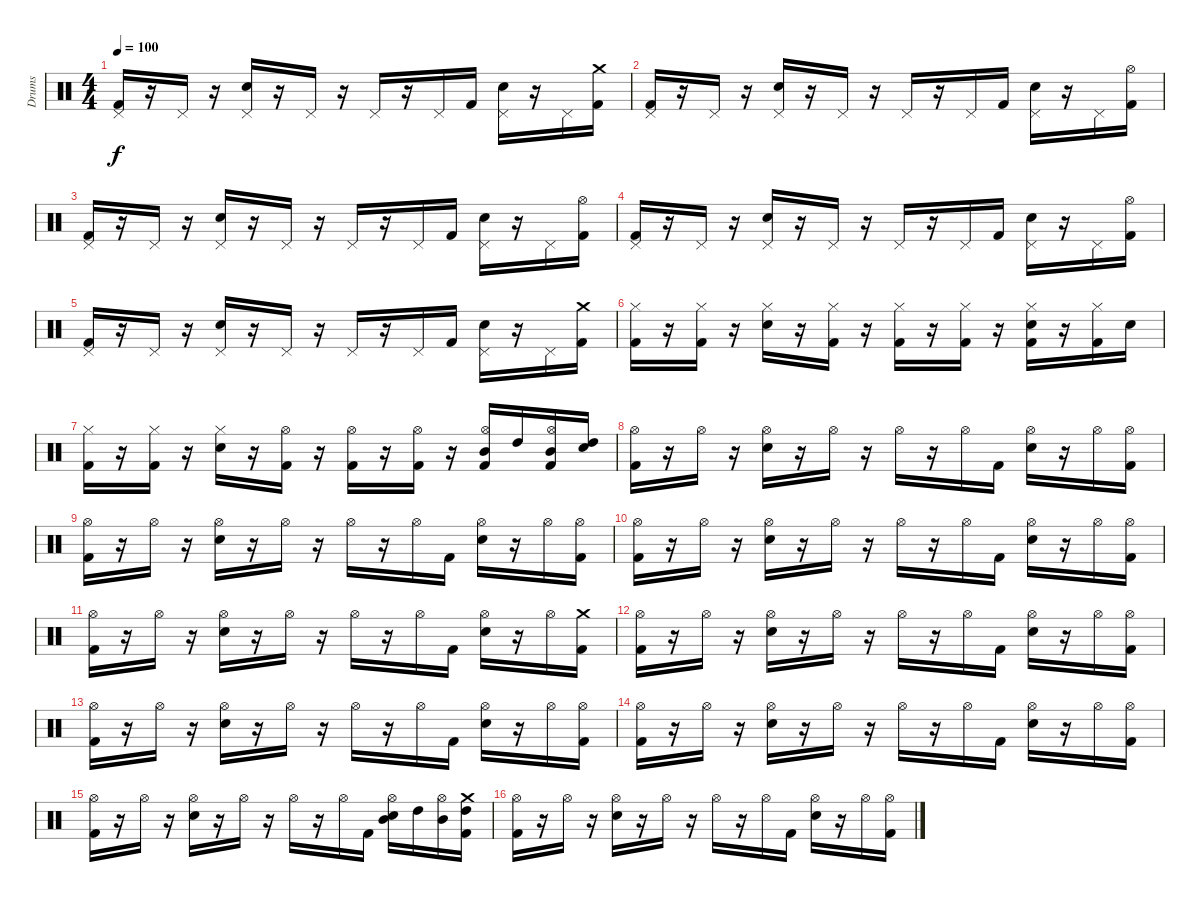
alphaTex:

\track ("Drums" "Drums") {instrument percussion}
\staff {score}
\articulation defaults
\ts (4 4)
\tempo 100
\clef neutral
\ks c
("Pedal Hi-Hat (hit)" "Kick (hit) 2").16{dy f} r.16 "Pedal Hi-Hat (hit)".16 r.16 ("Pedal Hi-Hat (hit)" "Snare (hit) 2").16 r.16 "Pedal Hi-Hat (hit)".16 r.16 "Pedal Hi-Hat (hit)".16 r.16 "Pedal Hi-Hat (hit)".16 "Kick (hit) 2".16 ("Pedal Hi-Hat (hit)" "Snare (hit) 2").16 r.16 "Pedal Hi-Hat (hit)".16 ("Crash medium (hit)" "Kick (hit) 2").16 |
("Pedal Hi-Hat (hit)" "Kick (hit) 2").16 r.16 "Pedal Hi-Hat (hit)".16 r.16 ("Pedal Hi-Hat (hit)" "Snare (hit) 2").16 r.16 "Pedal Hi-Hat (hit)".16 r.16 "Pedal Hi-Hat (hit)".16 r.16 "Pedal Hi-Hat (hit)".16 "Kick (hit) 2".16 ("Pedal Hi-Hat (hit)" "Snare (hit) 2").16 r.16 "Pedal Hi-Hat (hit)".16 ("Hi-Hat (open)" "Kick (hit) 2").16 |
("Pedal Hi-Hat (hit)" "Kick (hit) 2").16 r.16 "Pedal Hi-Hat (hit)".16 r.16 ("Pedal Hi-Hat (hit)" "Snare (hit) 2").16 r.16 "Pedal Hi-Hat (hit)".16 r.16 "Pedal Hi-Hat (hit)".16 r.16 "Pedal Hi-Hat (hit)".16 "Kick (hit) 2".16 ("Pedal Hi-Hat (hit)" "Snare (hit) 2").16 r.16 "Pedal Hi-Hat (hit)".16 ("Hi-Hat (open)" "Kick (hit) 2").16 |
("Pedal Hi-Hat (hit)" "Kick (hit) 2").16 r.16 "Pedal Hi-Hat (hit)".16 r.16 ("Pedal Hi-Hat (hit)" "Snare (hit) 2").16 r.16 "Pedal Hi-Hat (hit)".16 r.16 "Pedal Hi-Hat (hit)".16 r.16 "Pedal Hi-Hat (hit)".16 "Kick (hit) 2".16 ("Pedal Hi-Hat (hit)" "Snare (hit) 2").16 r.16 "Pedal Hi-Hat (hit)".16 ("Hi-Hat (open)" "Kick (hit) 2").16 |
("Pedal Hi-Hat (hit)" "Kick (hit) 2").16 r.16 "Pedal Hi-Hat (hit)".16 r.16 ("Pedal Hi-Hat (hit)" "Snare (hit) 2").16 r.16 "Pedal Hi-Hat (hit)".16 r.16 "Pedal Hi-Hat (hit)".16 r.16 "Pedal Hi-Hat (hit)".16 "Kick (hit) 2".16 ("Pedal Hi-Hat (hit)" "Snare (hit) 2").16 r.16 "Pedal Hi-Hat (hit)".16 ("Crash medium (hit)" "Kick (hit) 2").16 |
("Hi-Hat (closed)" "Kick (hit) 2").16 r.16 ("Hi-Hat (closed)" "Kick (hit) 2").16 r.16 ("Hi-Hat (closed)" "Snare (hit) 2").16 r.16 ("Hi-Hat (closed)" "Kick (hit) 2").16 r.16 ("Hi-Hat (closed)" "Kick (hit) 2").16 r.16 ("Hi-Hat (closed)" "Kick (hit) 2").16 r.16 ("Hi-Hat (closed)" "Snare (hit) 2" "Kick (hit) 2").16 r.16 ("Hi-Hat (closed)" "Kick (hit) 2").16 "Snare (hit) 2".16 |
("Hi-Hat (closed)" "Kick (hit) 2").16 r.16 ("Hi-Hat (closed)" "Kick (hit) 2").16 r.16 ("Hi-Hat (closed)" "Snare (hit) 2").16 r.16 ("Hi-Hat (open)" "Kick (hit) 2").16 r.16 ("Hi-Hat (open)" "Kick (hit) 2").16 r.16 ("Hi-Hat (open)" "Kick (hit) 2").16 r.16 ("Hi-Hat (open)" "Mid Tom (hit)" "Kick (hit) 2").16 "High Tom (hit)".16 ("Hi-Hat (open)" "Mid Tom (hit)" "Kick (hit) 2").16 ("High Tom (hit)" "Snare (hit) 2").16 |
("Hi-Hat (open)" "Kick (hit) 2").16 r.16 "Hi-Hat (open)".16 r.16 ("Hi-Hat (open)" "Snare (hit) 2").16 r.16 "Hi-Hat (open)".16 r.16 "Hi-Hat (open)".16 r.16 "Hi-Hat (open)".16 "Kick (hit) 2".16 ("Hi-Hat (open)" "Snare (hit) 2").16 r.16 "Hi-Hat (open)".16 ("Hi-Hat (open)" "Kick (hit) 2").16 |
("Hi-Hat (open)" "Kick (hit) 2").16 r.16 "Hi-Hat (open)".16 r.16 ("Hi-Hat (open)" "Snare (hit) 2").16 r.16 "Hi-Hat (open)".16 r.16 "Hi-Hat (open)".16 r.16 "Hi-Hat (open)".16 "Kick (hit) 2".16 ("Hi-Hat (open)" "Snare (hit) 2").16 r.16 "Hi-Hat (open)".16 ("Hi-Hat (open)" "Kick (hit) 2").16 |
("Hi-Hat (open)" "Kick (hit) 2").16 r.16 "Hi-Hat (open)".16 r.16 ("Hi-Hat (open)" "Snare (hit) 2").16 r.16 "Hi-Hat (open)".16 r.16 "Hi-Hat (open)".16 r.16 "Hi-Hat (open)".16 "Kick (hit) 2".16 ("Hi-Hat (open)" "Snare (hit) 2").16 r.16 "Hi-Hat (open)".16 ("Hi-Hat (open)" "Kick (hit) 2").16 |
("Hi-Hat (open)" "Kick (hit) 2").16 r.16 "Hi-Hat (open)".16 r.16 ("Hi-Hat (open)" "Snare (hit) 2").16 r.16 "Hi-Hat (open)".16 r.16 "Hi-Hat (open)".16 r.16 "Hi-Hat (open)".16 "Kick (hit) 2".16 ("Hi-Hat (open)" "Snare (hit) 2").16 r.16 "Hi-Hat (open)".16 ("Crash medium (hit)" "Kick (hit) 2").16 |
("Hi-Hat (open)" "Kick (hit) 2").16 r.16 "Hi-Hat (open)".16 r.16 ("Hi-Hat (open)" "Snare (hit) 2").16 r.16 "Hi-Hat (open)".16 r.16 "Hi-Hat (open)".16 r.16 "Hi-Hat (open)".16 "Kick (hit) 2".16 ("Hi-Hat (open)" "Snare (hit) 2").16 r.16 "Hi-Hat (open)".16 ("Hi-Hat (open)" "Kick (hit) 2").16 |
("Hi-Hat (open)" "Kick (hit) 2").16 r.16 "Hi-Hat (open)".16 r.16 ("Hi-Hat (open)" "Snare (hit) 2").16 r.16 "Hi-Hat (open)".16 r.16 "Hi-Hat (open)".16 r.16 "Hi-Hat (open)".16 "Kick (hit) 2".16 ("Hi-Hat (open)" "Snare (hit) 2").16 r.16 "Hi-Hat (open)".16 ("Hi-Hat (open)" "Kick (hit) 2").16 |
("Hi-Hat (open)" "Kick (hit) 2").16 r.16 "Hi-Hat (open)".16 r.16 ("Hi-Hat (open)" "Snare (hit) 2").16 r.16 "Hi-Hat (open)".16 r.16 "Hi-Hat (open)".16 r.16 "Hi-Hat (open)".16 "Kick (hit) 2".16 ("Hi-Hat (open)" "Snare (hit) 2").16 r.16 "Hi-Hat (open)".16 ("Hi-Hat (open)" "Kick (hit) 2").16 |
("Hi-Hat (open)" "Kick (hit) 2").16 r.16 "Hi-Hat (open)".16 r.16 ("Hi-Hat (open)" "Snare (hit) 2").16 r.16 "Hi-Hat (open)".16 r.16 "Hi-Hat (open)".16 r.16 "Hi-Hat (open)".16 "Kick (hit) 2".16 ("Hi-Hat (open)" "Mid Tom (hit)" "Snare (hit) 2").16 "High Tom (hit)".16 ("Hi-Hat (open)" "Mid Tom (hit)").16 ("Crash medium (hit)" "Kick (hit) 2" "High Tom (hit)").16 |
("Hi-Hat (open)" "Kick (hit) 2").16 r.16 "Hi-Hat (open)".16 r.16 ("Hi-Hat (open)" "Snare (hit) 2").16 r.16 "Hi-Hat (open)".16 r.16 "Hi-Hat (open)".16 r.16 "Hi-Hat (open)".16 "Kick (hit) 2".16 ("Hi-Hat (open)" "Snare (hit) 2").16 r.16 "Hi-Hat (open)".16 ("Hi-Hat (open)" "Kick (hit) 2").16
